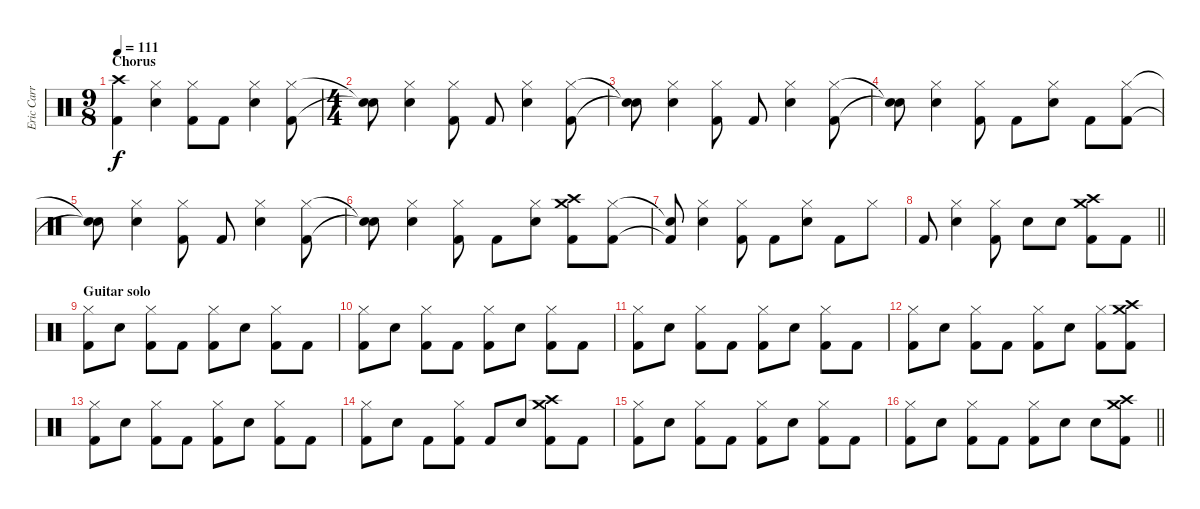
\track ("Eric Carr" "Eric Carr") {instrument percussion}
\staff {score}
\articulation defaults
\ts (9 8)
\section ("" "Chorus")
\tempo 111
\clef neutral
\ks c
("Crash high (hit)" "Kick (hit) 2").4{dy f} ("Hi-Hat (closed)" "Snare (hit) 2").4 ("Hi-Hat (closed)" "Kick (hit) 2").8 "Kick (hit) 2".8 ("Hi-Hat (closed)" "Snare (hit) 2").4 ("Hi-Hat (closed)" "Kick (hit) 2").8 |
\ts (4 4)
("Snare (hit)"{t} "Snare (hit)"{t}).8 ("Hi-Hat (closed)" "Snare (hit) 2").4 ("Hi-Hat (closed)" "Kick (hit) 2").8 "Kick (hit) 2".8 ("Hi-Hat (closed)" "Snare (hit) 2").4 ("Hi-Hat (closed)" "Kick (hit) 2").8 |
("Snare (hit)"{t} "Snare (hit)"{t}).8 ("Hi-Hat (closed)" "Snare (hit) 2").4 ("Hi-Hat (closed)" "Kick (hit) 2").8 "Kick (hit) 2".8 ("Hi-Hat (closed)" "Snare (hit) 2").4 ("Hi-Hat (closed)" "Kick (hit) 2").8 |
("Snare (hit)"{t} "Snare (hit)"{t}).8 ("Hi-Hat (closed)" "Snare (hit) 2").4 ("Hi-Hat (closed)" "Kick (hit) 2").8 "Kick (hit) 2".8 ("Hi-Hat (closed)" "Snare (hit) 2").8 "Kick (hit) 2".8 ("Hi-Hat (closed)" "Kick (hit) 2").8 |
("Snare (hit)"{t} "Snare (hit)"{t}).8 ("Hi-Hat (closed)" "Snare (hit) 2").4 ("Hi-Hat (closed)" "Kick (hit) 2").8 "Kick (hit) 2".8 ("Hi-Hat (closed)" "Snare (hit) 2").4 ("Hi-Hat (closed)" "Kick (hit) 2").8 |
("Snare (hit)"{t} "Snare (hit)"{t}).8 ("Hi-Hat (closed)" "Snare (hit) 2").4 ("Hi-Hat (closed)" "Kick (hit) 2").8 "Kick (hit) 2".8 ("Hi-Hat (closed)" "Snare (hit) 2").8 ("Crash medium (hit)" "Crash high (hit)" "Kick (hit) 2").8 ("Hi-Hat (closed)" "Kick (hit) 2").8 |
("Snare (hit)"{t} "Kick (hit) 2"{t}).8 ("Hi-Hat (closed)" "Snare (hit) 2").4 ("Hi-Hat (closed)" "Kick (hit) 2").8 "Kick (hit) 2".8 ("Hi-Hat (closed)" "Snare (hit) 2").8 "Kick (hit) 2".8 "Hi-Hat (closed)".8 |
\barLineRight lightlight "Kick (hit) 2".8
("Hi-Hat (closed)" "Snare (hit) 2").4 ("Hi-Hat (closed)" "Kick (hit) 2").8 "Snare (hit) 2".8 "Snare (hit) 2".8 ("Crash medium (hit)" "Crash high (hit)" "Kick (hit) 2").8 "Kick (hit) 2".8 |
\section ("" "Guitar solo")
("Hi-Hat (closed)" "Kick (hit) 2").8 "Snare (hit) 2".8 ("Hi-Hat (closed)" "Kick (hit) 2").8 "Kick (hit) 2".8 ("Hi-Hat (closed)" "Kick (hit) 2").8 "Snare (hit) 2".8 ("Hi-Hat (closed)" "Kick (hit) 2").8 "Kick (hit) 2".8 |
("Hi-Hat (closed)" "Kick (hit) 2").8 "Snare (hit) 2".8 ("Hi-Hat (closed)" "Kick (hit) 2").8 "Kick (hit) 2".8 ("Hi-Hat (closed)" "Kick (hit) 2").8 "Snare (hit) 2".8 ("Hi-Hat (closed)" "Kick (hit) 2").8 "Kick (hit) 2".8 |
("Hi-Hat (closed)" "Kick (hit) 2").8 "Snare (hit) 2".8 ("Hi-Hat (closed)" "Kick (hit) 2").8 "Kick (hit) 2".8 ("Hi-Hat (closed)" "Kick (hit) 2").8 "Snare (hit) 2".8 ("Hi-Hat (closed)" "Kick (hit) 2").8 "Kick (hit) 2".8 |
("Hi-Hat (closed)" "Kick (hit) 2").8 "Snare (hit) 2".8 ("Hi-Hat (closed)" "Kick (hit) 2").8 "Kick (hit) 2".8 ("Hi-Hat (closed)" "Kick (hit) 2").8 "Snare (hit) 2".8 ("Hi-Hat (closed)" "Kick (hit) 2").8 ("Crash medium (hit)" "Crash high (hit)" "Kick (hit) 2").8 |
("Hi-Hat (closed)" "Kick (hit) 2").8 "Snare (hit) 2".8 ("Hi-Hat (closed)" "Kick (hit) 2").8 "Kick (hit) 2".8 ("Hi-Hat (closed)" "Kick (hit) 2").8 "Snare (hit) 2".8 ("Hi-Hat (closed)" "Kick (hit) 2").8 "Kick (hit) 2".8 |
("Hi-Hat (closed)" "Kick (hit) 2").8 "Snare (hit) 2".8 "Kick (hit) 2".8 ("Hi-Hat (closed)" "Kick (hit) 2").8 "Kick (hit) 2".8 "Snare (hit) 2".8 ("Crash medium (hit)" "Crash high (hit)" "Kick (hit) 2").8 "Kick (hit) 2".8 |
("Hi-Hat (closed)" "Kick (hit) 2").8 "Snare (hit) 2".8 ("Hi-Hat (closed)" "Kick (hit) 2").8 "Kick (hit) 2".8 ("Hi-Hat (closed)" "Kick (hit) 2").8 "Snare (hit) 2".8 ("Hi-Hat (closed)" "Kick (hit) 2").8 "Kick (hit) 2".8 |
\barLineRight lightlight
("Hi-Hat (closed)" "Kick (hit) 2").8 "Snare (hit) 2".8 ("Hi-Hat (closed)" "Kick (hit) 2").8 "Kick (hit) 2".8 ("Hi-Hat (closed)" "Kick (hit) 2").8 "Snare (hit) 2".8 "Snare (hit) 2".8 ("Crash medium (hit)" "Crash high (hit)" "Kick (hit) 2").8
